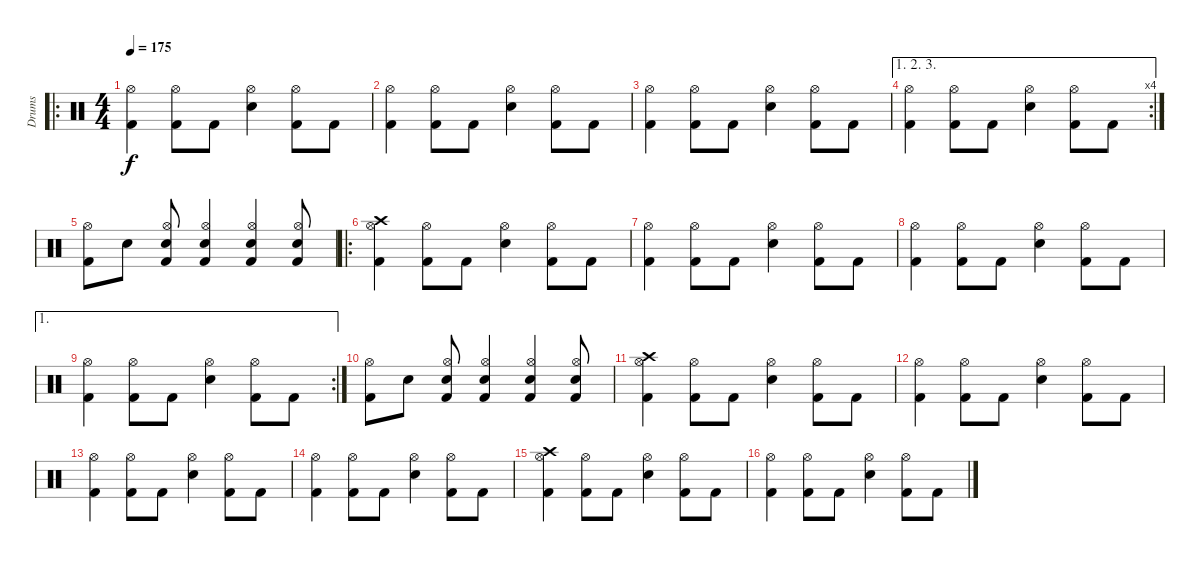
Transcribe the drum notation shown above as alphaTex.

\track ("Drums" "Drums") {instrument percussion}
\staff {score}
\articulation defaults
\ro
\ts (4 4)
\tempo 175
\clef neutral
\ks c
("Kick (hit) 2" "Hi-Hat (open)").4{dy f} ("Kick (hit) 2" "Hi-Hat (open)").8 "Kick (hit) 2".8 ("Hi-Hat (open)" "Snare (hit) 2").4 ("Kick (hit) 2" "Hi-Hat (open)").8 "Kick (hit) 2".8 |
("Kick (hit) 2" "Hi-Hat (open)").4 ("Kick (hit) 2" "Hi-Hat (open)").8 "Kick (hit) 2".8 ("Hi-Hat (open)" "Snare (hit) 2").4 ("Kick (hit) 2" "Hi-Hat (open)").8 "Kick (hit) 2".8 |
("Kick (hit) 2" "Hi-Hat (open)").4 ("Kick (hit) 2" "Hi-Hat (open)").8 "Kick (hit) 2".8 ("Hi-Hat (open)" "Snare (hit) 2").4 ("Kick (hit) 2" "Hi-Hat (open)").8 "Kick (hit) 2".8 |
\ae (1 2 3)
\rc 4
("Kick (hit) 2" "Hi-Hat (open)").4 ("Kick (hit) 2" "Hi-Hat (open)").8 "Kick (hit) 2".8 ("Hi-Hat (open)" "Snare (hit) 2").4 ("Kick (hit) 2" "Hi-Hat (open)").8 "Kick (hit) 2".8 |
("Kick (hit) 2" "Hi-Hat (open)").8 "Snare (hit) 2".8 ("Kick (hit) 2" "Hi-Hat (open)" "Snare (hit) 2").8 ("Kick (hit) 2" "Hi-Hat (open)" "Snare (hit) 2").4 ("Kick (hit) 2" "Hi-Hat (open)" "Snare (hit) 2").4 ("Kick (hit) 2" "Hi-Hat (open)" "Snare (hit) 2").8 |
\ro
("Kick (hit) 2" "Crash high (hit)" "Hi-Hat (open)").4 ("Kick (hit) 2" "Hi-Hat (open)").8 "Kick (hit) 2".8 ("Hi-Hat (open)" "Snare (hit) 2").4 ("Kick (hit) 2" "Hi-Hat (open)").8 "Kick (hit) 2".8 |
("Kick (hit) 2" "Hi-Hat (open)").4 ("Kick (hit) 2" "Hi-Hat (open)").8 "Kick (hit) 2".8 ("Hi-Hat (open)" "Snare (hit) 2").4 ("Kick (hit) 2" "Hi-Hat (open)").8 "Kick (hit) 2".8 |
("Kick (hit) 2" "Hi-Hat (open)").4 ("Kick (hit) 2" "Hi-Hat (open)").8 "Kick (hit) 2".8 ("Hi-Hat (open)" "Snare (hit) 2").4 ("Kick (hit) 2" "Hi-Hat (open)").8 "Kick (hit) 2".8 |
\ae 1
\rc 2
("Kick (hit) 2" "Hi-Hat (open)").4 ("Kick (hit) 2" "Hi-Hat (open)").8 "Kick (hit) 2".8 ("Hi-Hat (open)" "Snare (hit) 2").4 ("Kick (hit) 2" "Hi-Hat (open)").8 "Kick (hit) 2".8 |
("Kick (hit) 2" "Hi-Hat (open)").8 "Snare (hit) 2".8 ("Kick (hit) 2" "Hi-Hat (open)" "Snare (hit) 2").8 ("Kick (hit) 2" "Hi-Hat (open)" "Snare (hit) 2").4 ("Kick (hit) 2" "Hi-Hat (open)" "Snare (hit) 2").4 ("Kick (hit) 2" "Hi-Hat (open)" "Snare (hit) 2").8 |
("Kick (hit) 2" "Crash high (hit)" "Hi-Hat (open)").4 ("Kick (hit) 2" "Hi-Hat (open)").8 "Kick (hit) 2".8 ("Hi-Hat (open)" "Snare (hit) 2").4 ("Kick (hit) 2" "Hi-Hat (open)").8 "Kick (hit) 2".8 |
("Kick (hit) 2" "Hi-Hat (open)").4 ("Kick (hit) 2" "Hi-Hat (open)").8 "Kick (hit) 2".8 ("Hi-Hat (open)" "Snare (hit) 2").4 ("Kick (hit) 2" "Hi-Hat (open)").8 "Kick (hit) 2".8 |
("Kick (hit) 2" "Hi-Hat (open)").4 ("Kick (hit) 2" "Hi-Hat (open)").8 "Kick (hit) 2".8 ("Hi-Hat (open)" "Snare (hit) 2").4 ("Kick (hit) 2" "Hi-Hat (open)").8 "Kick (hit) 2".8 |
("Kick (hit) 2" "Hi-Hat (open)").4 ("Kick (hit) 2" "Hi-Hat (open)").8 "Kick (hit) 2".8 ("Hi-Hat (open)" "Snare (hit) 2").4 ("Kick (hit) 2" "Hi-Hat (open)").8 "Kick (hit) 2".8 |
("Kick (hit) 2" "Crash high (hit)" "Hi-Hat (open)").4 ("Kick (hit) 2" "Hi-Hat (open)").8 "Kick (hit) 2".8 ("Hi-Hat (open)" "Snare (hit) 2").4 ("Kick (hit) 2" "Hi-Hat (open)").8 "Kick (hit) 2".8 |
("Kick (hit) 2" "Hi-Hat (open)").4 ("Kick (hit) 2" "Hi-Hat (open)").8 "Kick (hit) 2".8 ("Hi-Hat (open)" "Snare (hit) 2").4 ("Kick (hit) 2" "Hi-Hat (open)").8 "Kick (hit) 2".8
